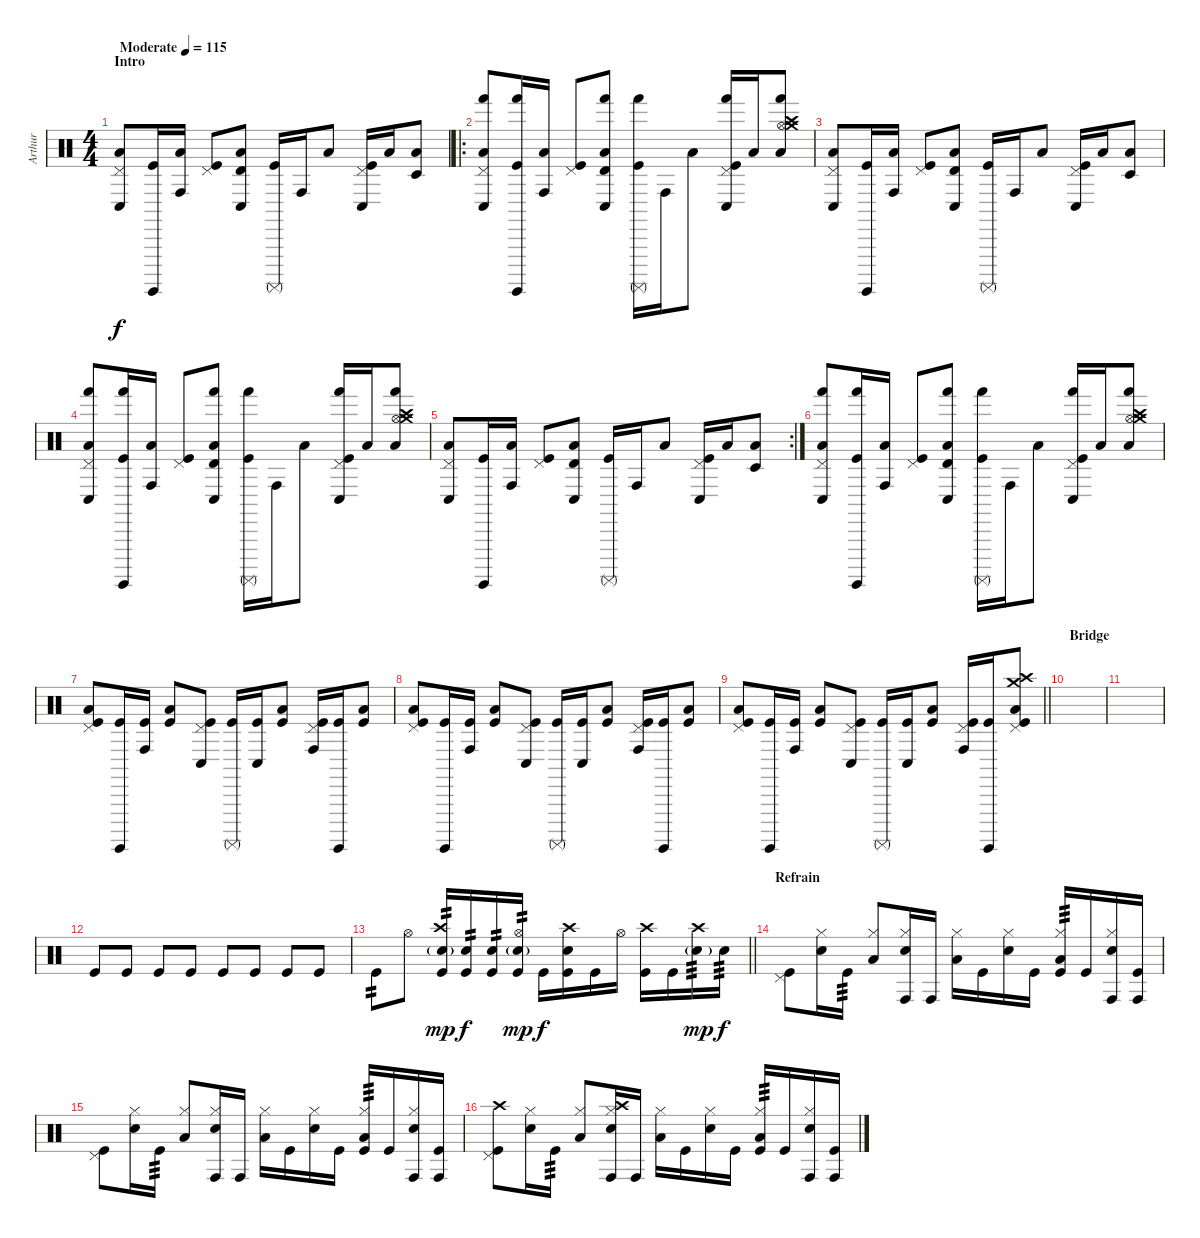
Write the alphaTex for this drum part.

\track ("Arthur" "Arthur") {instrument percussion}
\staff {score}
\articulation defaults
\ts (4 4)
\section ("" "Intro")
\tempo (115 "Moderate")
\clef neutral
\ks c
("Conga low (hit)" "Pedal Hi-Hat (hit)" "Low Tom (hit)").8{dy f} ("Surdo (hit)" "Kick (hit)").16 ("Conga high (hit)" "Low Floor Tom (hit)").16 ("Pedal Hi-Hat (hit)" "Kick (hit)").8 ("Conga low (hit)" "Timbale high (hit)" "Low Tom (hit)").8 ("Surdo (mute)" "Kick (hit)").16 "Conga high (hit)".16 "Low Floor Tom (hit)".8 ("Conga low (hit)" "Pedal Hi-Hat (hit)" "Kick (hit)").16 "Low Tom (hit)".16 ("Timbale low (hit)" "Low Tom (hit)").8 |
\ro
("Conga low (hit)" "Pedal Hi-Hat (hit)" "Low Tom (hit)" "Hand (hit)").8 ("Hand (hit)" "Surdo (hit)" "Kick (hit)").16 ("Conga high (hit)" "Low Floor Tom (hit)").16 ("Pedal Hi-Hat (hit)" "Kick (hit)").8 ("Conga low (hit)" "Timbale high (hit)" "Low Tom (hit)" "Hand (hit)").8 ("Hand (hit)" "Surdo (mute)" "Kick (hit)").16 "Conga high (hit)".16 "Low Floor Tom (hit)".8 ("Conga low (hit)" "Hand (hit)" "Pedal Hi-Hat (hit)" "Kick (hit)").16 "Low Tom (hit)".16 ("Hi-Hat (open)" "Crash medium (hit)" "Crash high (hit)" "Low Tom (hit)" "Hand (hit)").8 |
("Conga low (hit)" "Pedal Hi-Hat (hit)" "Low Tom (hit)").8 ("Surdo (hit)" "Kick (hit)").16 ("Conga high (hit)" "Low Floor Tom (hit)").16 ("Pedal Hi-Hat (hit)" "Kick (hit)").8 ("Conga low (hit)" "Timbale high (hit)" "Low Tom (hit)").8 ("Surdo (mute)" "Kick (hit)").16 "Conga high (hit)".16 "Low Floor Tom (hit)".8 ("Conga low (hit)" "Pedal Hi-Hat (hit)" "Kick (hit)").16 "Low Tom (hit)".16 ("Timbale low (hit)" "Low Tom (hit)").8 |
("Conga low (hit)" "Pedal Hi-Hat (hit)" "Low Tom (hit)" "Hand (hit)").8 ("Hand (hit)" "Surdo (hit)" "Kick (hit)").16 ("Conga high (hit)" "Low Floor Tom (hit)").16 ("Pedal Hi-Hat (hit)" "Kick (hit)").8 ("Conga low (hit)" "Timbale high (hit)" "Low Tom (hit)" "Hand (hit)").8 ("Hand (hit)" "Surdo (mute)" "Kick (hit)").16 "Conga high (hit)".16 "Low Floor Tom (hit)".8 ("Conga low (hit)" "Hand (hit)" "Pedal Hi-Hat (hit)" "Kick (hit)").16 "Low Tom (hit)".16 ("Hi-Hat (open)" "Crash medium (hit)" "Crash high (hit)" "Low Tom (hit)" "Hand (hit)").8 |
\rc 2
("Conga low (hit)" "Pedal Hi-Hat (hit)" "Low Tom (hit)").8 ("Surdo (hit)" "Kick (hit)").16 ("Conga high (hit)" "Low Floor Tom (hit)").16 ("Pedal Hi-Hat (hit)" "Kick (hit)").8 ("Conga low (hit)" "Timbale high (hit)" "Low Tom (hit)").8 ("Surdo (mute)" "Kick (hit)").16 "Conga high (hit)".16 "Low Floor Tom (hit)".8 ("Conga low (hit)" "Pedal Hi-Hat (hit)" "Kick (hit)").16 "Low Tom (hit)".16 ("Timbale low (hit)" "Low Tom (hit)").8 |
("Conga low (hit)" "Pedal Hi-Hat (hit)" "Low Tom (hit)" "Hand (hit)").8 ("Hand (hit)" "Surdo (hit)" "Kick (hit)").16 ("Conga high (hit)" "Low Floor Tom (hit)").16 ("Pedal Hi-Hat (hit)" "Kick (hit)").8 ("Conga low (hit)" "Timbale high (hit)" "Low Tom (hit)" "Hand (hit)").8 ("Hand (hit)" "Surdo (mute)" "Kick (hit)").16 "Conga high (hit)".16 "Low Floor Tom (hit)".8 ("Conga low (hit)" "Hand (hit)" "Pedal Hi-Hat (hit)" "Kick (hit)").16 "Low Tom (hit)".16 ("Hi-Hat (open)" "Crash medium (hit)" "Crash high (hit)" "Low Tom (hit)" "Hand (hit)").8 |
("Low Tom (hit)" "Pedal Hi-Hat (hit)" "Kick (hit)").8 ("Surdo (hit)" "Kick (hit)").16 ("Conga high (hit)" "Kick (hit)").16 ("Low Floor Tom (hit)" "Kick (hit)").8 ("Conga low (hit)" "Pedal Hi-Hat (hit)" "Kick (hit)").8 ("Surdo (mute)" "Kick (hit)").16 ("Conga low (hit)" "Kick (hit)").16 ("Low Tom (hit)" "Kick (hit)").8 ("Conga high (hit)" "Pedal Hi-Hat (hit)" "Kick (hit)").16 ("Surdo (hit)" "Kick (hit)").16 ("Low Floor Tom (hit)" "Kick (hit)").8 |
("Low Tom (hit)" "Pedal Hi-Hat (hit)" "Kick (hit)").8 ("Surdo (hit)" "Kick (hit)").16 ("Conga high (hit)" "Kick (hit)").16 ("Low Floor Tom (hit)" "Kick (hit)").8 ("Conga low (hit)" "Pedal Hi-Hat (hit)" "Kick (hit)").8 ("Surdo (mute)" "Kick (hit)").16 ("Conga low (hit)" "Kick (hit)").16 ("Low Tom (hit)" "Kick (hit)").8 ("Conga high (hit)" "Pedal Hi-Hat (hit)" "Kick (hit)").16 ("Surdo (hit)" "Kick (hit)").16 ("Low Floor Tom (hit)" "Kick (hit)").8 |
\barLineRight lightlight
("Low Tom (hit)" "Pedal Hi-Hat (hit)" "Kick (hit)").8 ("Surdo (hit)" "Kick (hit)").16 ("Conga high (hit)" "Kick (hit)").16 ("Low Floor Tom (hit)" "Kick (hit)").8 ("Conga low (hit)" "Pedal Hi-Hat (hit)" "Kick (hit)").8 ("Surdo (mute)" "Kick (hit)").16 ("Conga low (hit)" "Kick (hit)").16 ("Low Tom (hit)" "Kick (hit)").8 ("Conga high (hit)" "Pedal Hi-Hat (hit)" "Kick (hit)").16 ("Surdo (hit)" "Kick (hit)").16 ("Crash high (hit)" "Crash medium (hit)" "Low Floor Tom (hit)" "Pedal Hi-Hat (hit)" "Kick (hit)").8 |
\section ("" "Bridge")
|
|
"Kick (hit)".8 "Kick (hit)".8 "Kick (hit)".8 "Kick (hit)".8 "Kick (hit)".8 "Kick (hit)".8 "Kick (hit)".8 "Kick (hit)".8 |
\barLineRight lightlight "Kick (hit)".8{tp 2} "Hi-Hat (open)".8
("Crash high (hit)" "Snare (hit) 2"{g} "Kick (hit)").16{tp 2 dy mp} ("Snare (hit) 2" "Kick (hit)").16{tp 2 dy f} ("Snare (hit) 2" "Kick (hit)").16{tp 2} ("Hi-Hat (open)" "Snare (hit) 2"{g} "Kick (hit)").16{tp 2 dy mp} "Kick (hit)".16{dy f} ("Crash high (hit)" "Electric Snare (hit)" "Kick (hit)").16 "Kick (hit)".16 "Hi-Hat (open)".16 ("Crash high (hit)" "Kick (hit)").16 "Kick (hit)".16 ("Crash high (hit)" "Snare (hit) 2"{g}).16{tp 3 dy mp} "Snare (hit) 2".16{tp 3 dy f} |
\section ("" "Refrain")
("Pedal Hi-Hat (hit)" "Kick (hit)").8 ("Hi-Hat (closed)" "Electric Snare (hit)").16 "Kick (hit)".16{tp 3} ("Hi-Hat (closed)" "Low Tom (hit)").8 ("Hi-Hat (closed)" "Electric Snare (hit)" "Conga high (hit)").16 "Conga high (hit)".16 ("Hi-Hat (closed)" "Low Tom (hit)").16 "Kick (hit)".16 ("Hi-Hat (closed)" "Electric Snare (hit)").16 "Kick (hit)".16 ("Hi-Hat (closed)" "Low Tom (hit)" "Kick (hit)").16{tp 3} "Kick (hit)".16 ("Hi-Hat (closed)" "Electric Snare (hit)" "Conga high (hit)").16 ("Conga high (hit)" "Kick (hit)").16 |
("Pedal Hi-Hat (hit)" "Kick (hit)").8 ("Hi-Hat (closed)" "Electric Snare (hit)").16 "Kick (hit)".16{tp 3} ("Hi-Hat (closed)" "Low Tom (hit)").8 ("Hi-Hat (closed)" "Electric Snare (hit)" "Conga high (hit)").16 "Conga high (hit)".16 ("Hi-Hat (closed)" "Low Tom (hit)").16 "Kick (hit)".16 ("Hi-Hat (closed)" "Electric Snare (hit)").16 "Kick (hit)".16 ("Hi-Hat (closed)" "Low Tom (hit)" "Kick (hit)").16{tp 3} "Kick (hit)".16 ("Hi-Hat (closed)" "Electric Snare (hit)" "Conga high (hit)").16 ("Conga high (hit)" "Kick (hit)").16 |
("Pedal Hi-Hat (hit)" "Crash high (hit)" "Kick (hit)").8 ("Hi-Hat (closed)" "Electric Snare (hit)").16 "Kick (hit)".16{tp 3} ("Hi-Hat (closed)" "Low Tom (hit)").8 ("Hi-Hat (closed)" "Crash high (hit)" "Electric Snare (hit)" "Conga high (hit)").16 "Conga high (hit)".16 ("Hi-Hat (closed)" "Low Tom (hit)").16 "Kick (hit)".16 ("Hi-Hat (closed)" "Electric Snare (hit)").16 "Kick (hit)".16 ("Hi-Hat (closed)" "Low Tom (hit)" "Kick (hit)").16{tp 3} "Kick (hit)".16 ("Hi-Hat (closed)" "Electric Snare (hit)" "Conga high (hit)").16 ("Conga high (hit)" "Kick (hit)").16
